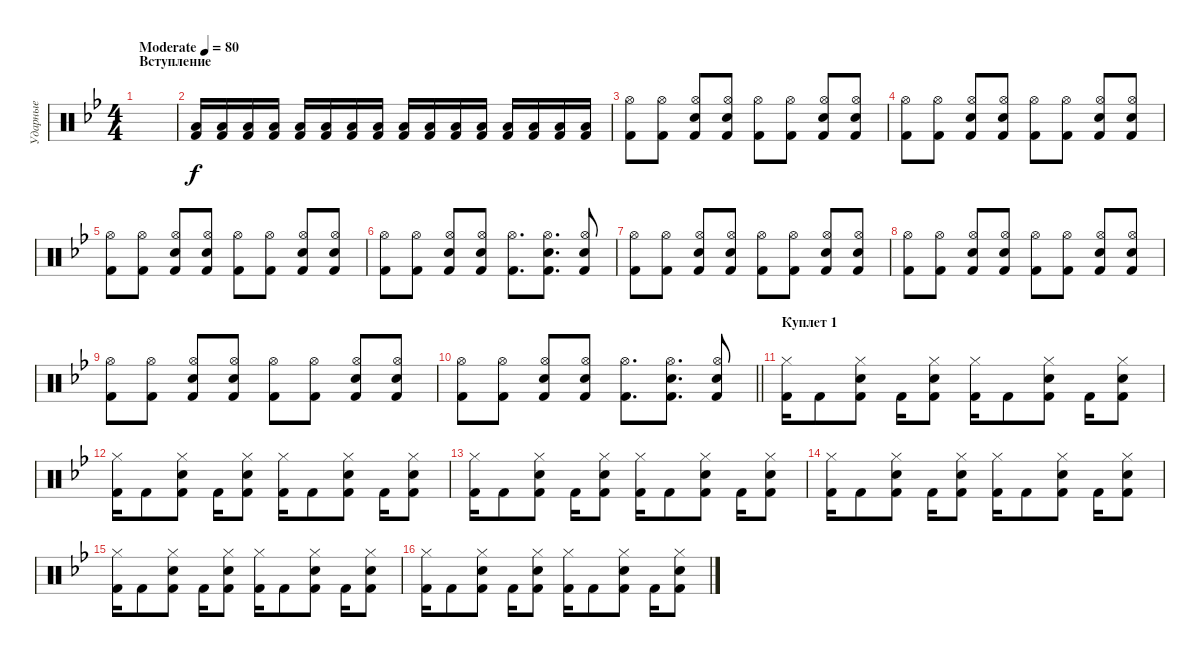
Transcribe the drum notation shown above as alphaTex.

\track ("Ударные" "Ударные") {instrument percussion}
\staff {score}
\articulation defaults
\ts (4 4)
\section ("" "Вступление")
\tempo (80 "Moderate")
\clef neutral
\ks gminor
|
("Low Tom (hit)" "Kick (hit) 2").16{volume 14} ("Low Tom (hit)" "Kick (hit) 2").16 ("Low Tom (hit)" "Kick (hit) 2").16 ("Low Tom (hit)" "Kick (hit) 2").16 ("Low Tom (hit)" "Kick (hit) 2").16 ("Low Tom (hit)" "Kick (hit) 2").16 ("Low Tom (hit)" "Kick (hit) 2").16 ("Low Tom (hit)" "Kick (hit) 2").16 ("Low Tom (hit)" "Kick (hit) 2").16 ("Low Tom (hit)" "Kick (hit) 2").16 ("Low Tom (hit)" "Kick (hit) 2").16 ("Low Tom (hit)" "Kick (hit) 2").16 ("Low Tom (hit)" "Kick (hit) 2").16 ("Low Tom (hit)" "Kick (hit) 2").16 ("Low Tom (hit)" "Kick (hit) 2").16 ("Low Tom (hit)" "Kick (hit) 2").16 |
("Hi-Hat (open)" "Kick (hit) 2").8 ("Hi-Hat (open)" "Kick (hit) 2").8 ("Hi-Hat (open)" "Electric Snare (hit)" "Kick (hit) 2").8 ("Hi-Hat (open)" "Electric Snare (hit)" "Kick (hit) 2").8 ("Hi-Hat (open)" "Kick (hit) 2").8 ("Hi-Hat (open)" "Kick (hit) 2").8 ("Hi-Hat (open)" "Electric Snare (hit)" "Kick (hit) 2").8 ("Hi-Hat (open)" "Electric Snare (hit)" "Kick (hit) 2").8 |
("Hi-Hat (open)" "Kick (hit) 2").8 ("Hi-Hat (open)" "Kick (hit) 2").8 ("Hi-Hat (open)" "Electric Snare (hit)" "Kick (hit) 2").8 ("Hi-Hat (open)" "Electric Snare (hit)" "Kick (hit) 2").8 ("Hi-Hat (open)" "Kick (hit) 2").8 ("Hi-Hat (open)" "Kick (hit) 2").8 ("Hi-Hat (open)" "Electric Snare (hit)" "Kick (hit) 2").8 ("Hi-Hat (open)" "Electric Snare (hit)" "Kick (hit) 2").8 |
("Hi-Hat (open)" "Kick (hit) 2").8 ("Hi-Hat (open)" "Kick (hit) 2").8 ("Hi-Hat (open)" "Electric Snare (hit)" "Kick (hit) 2").8 ("Hi-Hat (open)" "Electric Snare (hit)" "Kick (hit) 2").8 ("Hi-Hat (open)" "Kick (hit) 2").8 ("Hi-Hat (open)" "Kick (hit) 2").8 ("Hi-Hat (open)" "Electric Snare (hit)" "Kick (hit) 2").8 ("Hi-Hat (open)" "Electric Snare (hit)" "Kick (hit) 2").8 |
("Hi-Hat (open)" "Kick (hit) 2").8 ("Hi-Hat (open)" "Kick (hit) 2").8 ("Hi-Hat (open)" "Electric Snare (hit)" "Kick (hit) 2").8 ("Hi-Hat (open)" "Electric Snare (hit)" "Kick (hit) 2").8 ("Hi-Hat (open)" "Kick (hit) 2").8{d} ("Hi-Hat (open)" "Electric Snare (hit)" "Kick (hit) 2").8{d} ("Hi-Hat (open)" "Electric Snare (hit)" "Kick (hit) 2").8 |
("Hi-Hat (open)" "Kick (hit) 2").8 ("Hi-Hat (open)" "Kick (hit) 2").8 ("Hi-Hat (open)" "Electric Snare (hit)" "Kick (hit) 2").8 ("Hi-Hat (open)" "Electric Snare (hit)" "Kick (hit) 2").8 ("Hi-Hat (open)" "Kick (hit) 2").8 ("Hi-Hat (open)" "Kick (hit) 2").8 ("Hi-Hat (open)" "Electric Snare (hit)" "Kick (hit) 2").8 ("Hi-Hat (open)" "Electric Snare (hit)" "Kick (hit) 2").8 |
("Hi-Hat (open)" "Kick (hit) 2").8 ("Hi-Hat (open)" "Kick (hit) 2").8 ("Hi-Hat (open)" "Electric Snare (hit)" "Kick (hit) 2").8 ("Hi-Hat (open)" "Electric Snare (hit)" "Kick (hit) 2").8 ("Hi-Hat (open)" "Kick (hit) 2").8 ("Hi-Hat (open)" "Kick (hit) 2").8 ("Hi-Hat (open)" "Electric Snare (hit)" "Kick (hit) 2").8 ("Hi-Hat (open)" "Electric Snare (hit)" "Kick (hit) 2").8 |
("Hi-Hat (open)" "Kick (hit) 2").8 ("Hi-Hat (open)" "Kick (hit) 2").8 ("Hi-Hat (open)" "Electric Snare (hit)" "Kick (hit) 2").8 ("Hi-Hat (open)" "Electric Snare (hit)" "Kick (hit) 2").8 ("Hi-Hat (open)" "Kick (hit) 2").8 ("Hi-Hat (open)" "Kick (hit) 2").8 ("Hi-Hat (open)" "Electric Snare (hit)" "Kick (hit) 2").8 ("Hi-Hat (open)" "Electric Snare (hit)" "Kick (hit) 2").8 |
\barLineRight lightlight
("Hi-Hat (open)" "Kick (hit) 2").8 ("Hi-Hat (open)" "Kick (hit) 2").8 ("Hi-Hat (open)" "Electric Snare (hit)" "Kick (hit) 2").8 ("Hi-Hat (open)" "Electric Snare (hit)" "Kick (hit) 2").8 ("Hi-Hat (open)" "Kick (hit) 2").8{d} ("Hi-Hat (open)" "Electric Snare (hit)" "Kick (hit) 2").8{d} ("Hi-Hat (open)" "Electric Snare (hit)" "Kick (hit) 2").8 |
\section ("" "Куплет 1")
("Hi-Hat (closed)" "Kick (hit) 2").16 "Kick (hit) 2".8 ("Hi-Hat (closed)" "Electric Snare (hit)" "Kick (hit) 2").8 "Kick (hit) 2".16 ("Hi-Hat (closed)" "Electric Snare (hit)" "Kick (hit) 2").8 ("Hi-Hat (closed)" "Kick (hit) 2").16 "Kick (hit) 2".8 ("Hi-Hat (closed)" "Electric Snare (hit)" "Kick (hit) 2").8 "Kick (hit) 2".16 ("Hi-Hat (closed)" "Electric Snare (hit)" "Kick (hit) 2").8 |
("Hi-Hat (closed)" "Kick (hit) 2").16 "Kick (hit) 2".8 ("Hi-Hat (closed)" "Electric Snare (hit)" "Kick (hit) 2").8 "Kick (hit) 2".16 ("Hi-Hat (closed)" "Electric Snare (hit)" "Kick (hit) 2").8 ("Hi-Hat (closed)" "Kick (hit) 2").16 "Kick (hit) 2".8 ("Hi-Hat (closed)" "Electric Snare (hit)" "Kick (hit) 2").8 "Kick (hit) 2".16 ("Hi-Hat (closed)" "Electric Snare (hit)" "Kick (hit) 2").8 |
("Hi-Hat (closed)" "Kick (hit) 2").16 "Kick (hit) 2".8 ("Hi-Hat (closed)" "Electric Snare (hit)" "Kick (hit) 2").8 "Kick (hit) 2".16 ("Hi-Hat (closed)" "Electric Snare (hit)" "Kick (hit) 2").8 ("Hi-Hat (closed)" "Kick (hit) 2").16 "Kick (hit) 2".8 ("Hi-Hat (closed)" "Electric Snare (hit)" "Kick (hit) 2").8 "Kick (hit) 2".16 ("Hi-Hat (closed)" "Electric Snare (hit)" "Kick (hit) 2").8 |
("Hi-Hat (closed)" "Kick (hit) 2").16 "Kick (hit) 2".8 ("Hi-Hat (closed)" "Electric Snare (hit)" "Kick (hit) 2").8 "Kick (hit) 2".16 ("Hi-Hat (closed)" "Electric Snare (hit)" "Kick (hit) 2").8 ("Hi-Hat (closed)" "Kick (hit) 2").16 "Kick (hit) 2".8 ("Hi-Hat (closed)" "Electric Snare (hit)" "Kick (hit) 2").8 "Kick (hit) 2".16 ("Hi-Hat (closed)" "Electric Snare (hit)" "Kick (hit) 2").8 |
("Hi-Hat (closed)" "Kick (hit) 2").16 "Kick (hit) 2".8 ("Hi-Hat (closed)" "Electric Snare (hit)" "Kick (hit) 2").8 "Kick (hit) 2".16 ("Hi-Hat (closed)" "Electric Snare (hit)" "Kick (hit) 2").8 ("Hi-Hat (closed)" "Kick (hit) 2").16 "Kick (hit) 2".8 ("Hi-Hat (closed)" "Electric Snare (hit)" "Kick (hit) 2").8 "Kick (hit) 2".16 ("Hi-Hat (closed)" "Electric Snare (hit)" "Kick (hit) 2").8 |
("Hi-Hat (closed)" "Kick (hit) 2").16 "Kick (hit) 2".8 ("Hi-Hat (closed)" "Electric Snare (hit)" "Kick (hit) 2").8 "Kick (hit) 2".16 ("Hi-Hat (closed)" "Electric Snare (hit)" "Kick (hit) 2").8 ("Hi-Hat (closed)" "Kick (hit) 2").16 "Kick (hit) 2".8 ("Hi-Hat (closed)" "Electric Snare (hit)" "Kick (hit) 2").8 "Kick (hit) 2".16 ("Hi-Hat (closed)" "Electric Snare (hit)" "Kick (hit) 2").8
